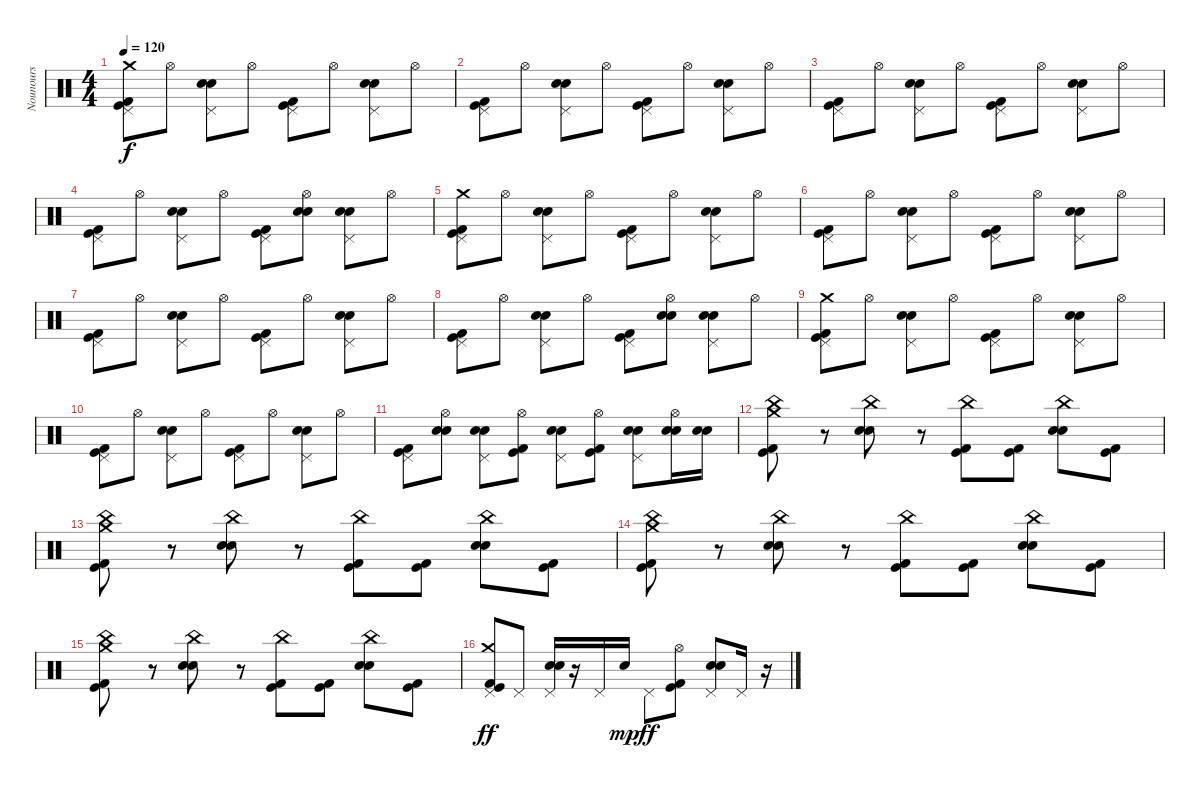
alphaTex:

\track ("Nounours" "Nounours") {instrument percussion}
\staff {score}
\articulation defaults
\ts (4 4)
\tempo 120
\clef neutral
\ks c
("Pedal Hi-Hat (hit)" "Crash medium (hit)" "Kick (hit) 2" "Kick (hit)").8{dy f} "Hi-Hat (open)".8 ("Pedal Hi-Hat (hit)" "Electric Snare (hit)" "Electric Snare (hit)").8 "Hi-Hat (open)".8 ("Pedal Hi-Hat (hit)" "Kick (hit)" "Kick (hit) 2").8 "Hi-Hat (open)".8 ("Pedal Hi-Hat (hit)" "Electric Snare (hit)" "Electric Snare (hit)").8 "Hi-Hat (open)".8 |
("Pedal Hi-Hat (hit)" "Kick (hit) 2" "Kick (hit)").8 "Hi-Hat (open)".8 ("Pedal Hi-Hat (hit)" "Electric Snare (hit)" "Electric Snare (hit)").8 "Hi-Hat (open)".8 ("Pedal Hi-Hat (hit)" "Kick (hit)" "Kick (hit) 2").8 "Hi-Hat (open)".8 ("Pedal Hi-Hat (hit)" "Electric Snare (hit)" "Electric Snare (hit)").8 "Hi-Hat (open)".8 |
("Pedal Hi-Hat (hit)" "Kick (hit) 2" "Kick (hit)").8 "Hi-Hat (open)".8 ("Pedal Hi-Hat (hit)" "Electric Snare (hit)" "Electric Snare (hit)").8 "Hi-Hat (open)".8 ("Pedal Hi-Hat (hit)" "Kick (hit)" "Kick (hit) 2").8 "Hi-Hat (open)".8 ("Pedal Hi-Hat (hit)" "Electric Snare (hit)" "Electric Snare (hit)").8 "Hi-Hat (open)".8 |
("Pedal Hi-Hat (hit)" "Kick (hit) 2" "Kick (hit)").8 "Hi-Hat (open)".8 ("Pedal Hi-Hat (hit)" "Electric Snare (hit)" "Electric Snare (hit)").8 "Hi-Hat (open)".8 ("Pedal Hi-Hat (hit)" "Kick (hit)" "Kick (hit) 2").8 ("Hi-Hat (open)" "Electric Snare (hit)" "Electric Snare (hit)").8 ("Pedal Hi-Hat (hit)" "Electric Snare (hit)" "Electric Snare (hit)").8 "Hi-Hat (open)".8 |
("Pedal Hi-Hat (hit)" "Crash medium (hit)" "Kick (hit) 2" "Kick (hit)").8 "Hi-Hat (open)".8 ("Pedal Hi-Hat (hit)" "Electric Snare (hit)" "Electric Snare (hit)").8 "Hi-Hat (open)".8 ("Pedal Hi-Hat (hit)" "Kick (hit)" "Kick (hit) 2").8 "Hi-Hat (open)".8 ("Pedal Hi-Hat (hit)" "Electric Snare (hit)" "Electric Snare (hit)").8 "Hi-Hat (open)".8 |
("Pedal Hi-Hat (hit)" "Kick (hit) 2" "Kick (hit)").8 "Hi-Hat (open)".8 ("Pedal Hi-Hat (hit)" "Electric Snare (hit)" "Electric Snare (hit)").8 "Hi-Hat (open)".8 ("Pedal Hi-Hat (hit)" "Kick (hit)" "Kick (hit) 2").8 "Hi-Hat (open)".8 ("Pedal Hi-Hat (hit)" "Electric Snare (hit)" "Electric Snare (hit)").8 "Hi-Hat (open)".8 |
("Pedal Hi-Hat (hit)" "Kick (hit) 2" "Kick (hit)").8 "Hi-Hat (open)".8 ("Pedal Hi-Hat (hit)" "Electric Snare (hit)" "Electric Snare (hit)").8 "Hi-Hat (open)".8 ("Pedal Hi-Hat (hit)" "Kick (hit)" "Kick (hit) 2").8 "Hi-Hat (open)".8 ("Pedal Hi-Hat (hit)" "Electric Snare (hit)" "Electric Snare (hit)").8 "Hi-Hat (open)".8 |
("Pedal Hi-Hat (hit)" "Kick (hit) 2" "Kick (hit)").8 "Hi-Hat (open)".8 ("Pedal Hi-Hat (hit)" "Electric Snare (hit)" "Electric Snare (hit)").8 "Hi-Hat (open)".8 ("Pedal Hi-Hat (hit)" "Kick (hit)" "Kick (hit) 2").8 ("Hi-Hat (open)" "Electric Snare (hit)" "Electric Snare (hit)").8 ("Pedal Hi-Hat (hit)" "Electric Snare (hit)" "Electric Snare (hit)").8 "Hi-Hat (open)".8 |
("Pedal Hi-Hat (hit)" "Crash medium (hit)" "Kick (hit) 2" "Kick (hit)").8 "Hi-Hat (open)".8 ("Pedal Hi-Hat (hit)" "Electric Snare (hit)" "Electric Snare (hit)").8 "Hi-Hat (open)".8 ("Pedal Hi-Hat (hit)" "Kick (hit)" "Kick (hit) 2").8 "Hi-Hat (open)".8 ("Pedal Hi-Hat (hit)" "Electric Snare (hit)" "Electric Snare (hit)").8 "Hi-Hat (open)".8 |
("Pedal Hi-Hat (hit)" "Kick (hit) 2" "Kick (hit)").8 "Hi-Hat (open)".8 ("Pedal Hi-Hat (hit)" "Electric Snare (hit)" "Electric Snare (hit)").8 "Hi-Hat (open)".8 ("Pedal Hi-Hat (hit)" "Kick (hit)" "Kick (hit) 2").8 "Hi-Hat (open)".8 ("Pedal Hi-Hat (hit)" "Electric Snare (hit)" "Electric Snare (hit)").8 "Hi-Hat (open)".8 |
("Pedal Hi-Hat (hit)" "Kick (hit) 2" "Kick (hit)").8 ("Hi-Hat (open)" "Electric Snare (hit)" "Electric Snare (hit)").8 ("Pedal Hi-Hat (hit)" "Electric Snare (hit)" "Electric Snare (hit)").8 ("Hi-Hat (open)" "Kick (hit) 2" "Kick (hit)").8 ("Pedal Hi-Hat (hit)" "Electric Snare (hit)" "Electric Snare (hit)").8 ("Hi-Hat (open)" "Kick (hit) 2" "Kick (hit)").8 ("Pedal Hi-Hat (hit)" "Electric Snare (hit)" "Electric Snare (hit)").8 ("Hi-Hat (open)" "Electric Snare (hit)" "Electric Snare (hit)").16 ("Electric Snare (hit)" "Electric Snare (hit)").16 |
("China (hit)" "Crash medium (hit)" "Kick (hit) 2" "Kick (hit)").8 r.8 ("China (hit)" "Electric Snare (hit)" "Electric Snare (hit)").8 r.8 ("China (hit)" "Kick (hit)" "Kick (hit) 2").8 ("Kick (hit) 2" "Kick (hit)").8 ("China (hit)" "Electric Snare (hit)" "Electric Snare (hit)").8 ("Kick (hit) 2" "Kick (hit)").8 |
("China (hit)" "Crash medium (hit)" "Kick (hit) 2" "Kick (hit)").8 r.8 ("China (hit)" "Electric Snare (hit)" "Electric Snare (hit)").8 r.8 ("China (hit)" "Kick (hit)" "Kick (hit) 2").8 ("Kick (hit) 2" "Kick (hit)").8 ("China (hit)" "Electric Snare (hit)" "Electric Snare (hit)").8 ("Kick (hit) 2" "Kick (hit)").8 |
("China (hit)" "Crash medium (hit)" "Kick (hit) 2" "Kick (hit)").8 r.8 ("China (hit)" "Electric Snare (hit)" "Electric Snare (hit)").8 r.8 ("China (hit)" "Kick (hit)" "Kick (hit) 2").8 ("Kick (hit) 2" "Kick (hit)").8 ("China (hit)" "Electric Snare (hit)" "Electric Snare (hit)").8 ("Kick (hit) 2" "Kick (hit)").8 |
("China (hit)" "Crash medium (hit)" "Kick (hit) 2" "Kick (hit)").8 r.8 ("China (hit)" "Electric Snare (hit)" "Electric Snare (hit)").8 r.8 ("China (hit)" "Kick (hit)" "Kick (hit) 2").8 ("Kick (hit) 2" "Kick (hit)").8 ("China (hit)" "Electric Snare (hit)" "Electric Snare (hit)").8 ("Kick (hit) 2" "Kick (hit)").8 |
("Crash medium (hit)" "Pedal Hi-Hat (hit)" "Kick (hit)" "Kick (hit) 2").8{dy ff} "Pedal Hi-Hat (hit)".8 ("Pedal Hi-Hat (hit)" "Electric Snare (hit)" "Electric Snare (hit)").16 r.16 "Pedal Hi-Hat (hit)".16 "Electric Snare (hit)".16{dy mp} "Pedal Hi-Hat (hit)".8{dy ff} ("Hi-Hat (open)" "Kick (hit) 2" "Kick (hit)").8 ("Pedal Hi-Hat (hit)" "Electric Snare (hit)" "Electric Snare (hit)").8 "Pedal Hi-Hat (hit)".16 r.16
